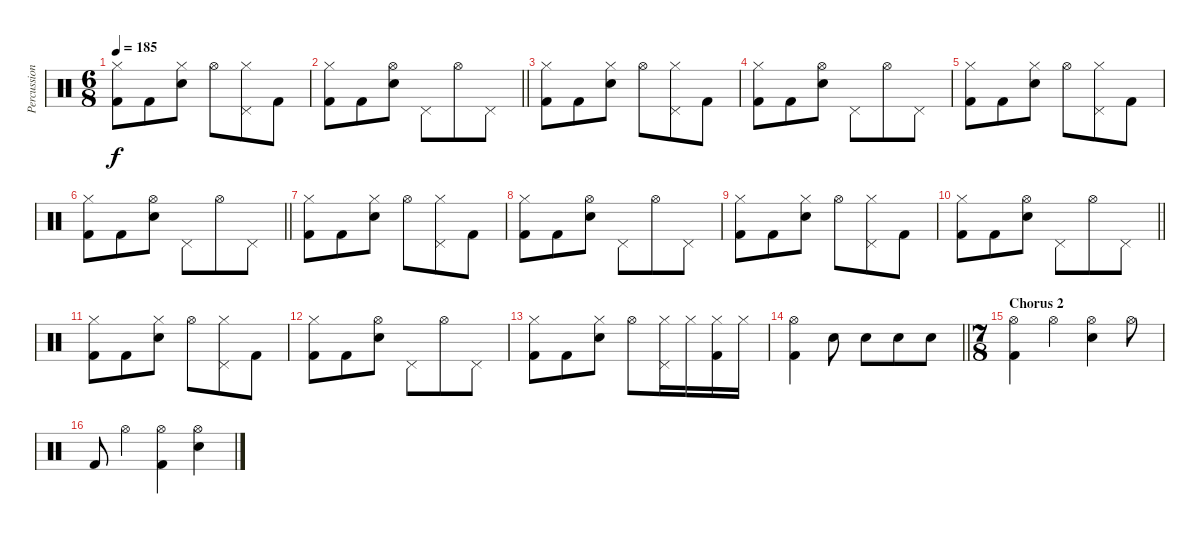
\track ("Percussion" "Percussion") {instrument percussion}
\staff {score}
\articulation defaults
\ts (6 8)
\tempo 185
\clef neutral
\ks c
("Hi-Hat (closed)" "Kick (hit) 2").8{dy f} "Kick (hit) 2".8 ("Hi-Hat (closed)" "Snare (hit) 2").8 "Hi-Hat (open)".8 ("Hi-Hat (closed)" "Pedal Hi-Hat (hit)").8 "Kick (hit) 2".8 |
\barLineRight lightlight
("Hi-Hat (closed)" "Kick (hit) 2").8 "Kick (hit) 2".8 ("Hi-Hat (open)" "Snare (hit) 2").8 "Pedal Hi-Hat (hit)".8 "Hi-Hat (open)".8 "Pedal Hi-Hat (hit)".8 |
("Hi-Hat (closed)" "Kick (hit) 2").8 "Kick (hit) 2".8 ("Hi-Hat (closed)" "Snare (hit) 2").8 "Hi-Hat (open)".8 ("Hi-Hat (closed)" "Pedal Hi-Hat (hit)").8 "Kick (hit) 2".8 |
("Hi-Hat (closed)" "Kick (hit) 2").8 "Kick (hit) 2".8 ("Hi-Hat (open)" "Snare (hit) 2").8 "Pedal Hi-Hat (hit)".8 "Hi-Hat (open)".8 "Pedal Hi-Hat (hit)".8 |
("Hi-Hat (closed)" "Kick (hit) 2").8 "Kick (hit) 2".8 ("Hi-Hat (closed)" "Snare (hit) 2").8 "Hi-Hat (open)".8 ("Hi-Hat (closed)" "Pedal Hi-Hat (hit)").8 "Kick (hit) 2".8 |
\barLineRight lightlight
("Hi-Hat (closed)" "Kick (hit) 2").8 "Kick (hit) 2".8 ("Hi-Hat (open)" "Snare (hit) 2").8 "Pedal Hi-Hat (hit)".8 "Hi-Hat (open)".8 "Pedal Hi-Hat (hit)".8 |
("Hi-Hat (closed)" "Kick (hit) 2").8 "Kick (hit) 2".8 ("Hi-Hat (closed)" "Snare (hit) 2").8 "Hi-Hat (open)".8 ("Hi-Hat (closed)" "Pedal Hi-Hat (hit)").8 "Kick (hit) 2".8 |
("Hi-Hat (closed)" "Kick (hit) 2").8 "Kick (hit) 2".8 ("Hi-Hat (open)" "Snare (hit) 2").8 "Pedal Hi-Hat (hit)".8 "Hi-Hat (open)".8 "Pedal Hi-Hat (hit)".8 |
("Hi-Hat (closed)" "Kick (hit) 2").8 "Kick (hit) 2".8 ("Hi-Hat (closed)" "Snare (hit) 2").8 "Hi-Hat (open)".8 ("Hi-Hat (closed)" "Pedal Hi-Hat (hit)").8 "Kick (hit) 2".8 |
\barLineRight lightlight
("Hi-Hat (closed)" "Kick (hit) 2").8 "Kick (hit) 2".8 ("Hi-Hat (open)" "Snare (hit) 2").8 "Pedal Hi-Hat (hit)".8 "Hi-Hat (open)".8 "Pedal Hi-Hat (hit)".8 |
("Hi-Hat (closed)" "Kick (hit) 2").8 "Kick (hit) 2".8 ("Hi-Hat (closed)" "Snare (hit) 2").8 "Hi-Hat (open)".8 ("Hi-Hat (closed)" "Pedal Hi-Hat (hit)").8 "Kick (hit) 2".8 |
("Hi-Hat (closed)" "Kick (hit) 2").8 "Kick (hit) 2".8 ("Hi-Hat (open)" "Snare (hit) 2").8 "Pedal Hi-Hat (hit)".8 "Hi-Hat (open)".8 "Pedal Hi-Hat (hit)".8 |
("Hi-Hat (closed)" "Kick (hit) 2").8 "Kick (hit) 2".8 ("Hi-Hat (closed)" "Snare (hit) 2").8 "Hi-Hat (open)".8 ("Hi-Hat (closed)" "Pedal Hi-Hat (hit)").16 "Hi-Hat (closed)".16 ("Hi-Hat (closed)" "Kick (hit) 2").16 "Hi-Hat (closed)".16 |
\barLineRight lightlight
("Hi-Hat (open)" "Kick (hit) 2").4 "Snare (hit) 2".8 "Snare (hit) 2".8 "Snare (hit) 2".8 "Snare (hit) 2".8 |
\ts (7 8)
\section ("" "Chorus 2")
("Hi-Hat (open)" "Kick (hit) 2").4 "Hi-Hat (open)".4 ("Hi-Hat (open)" "Snare (hit) 2").4 "Hi-Hat (open)".8 |
"Kick (hit) 2".8 "Hi-Hat (open)".4 ("Hi-Hat (open)" "Kick (hit) 2").4 ("Hi-Hat (open)" "Snare (hit) 2").4
